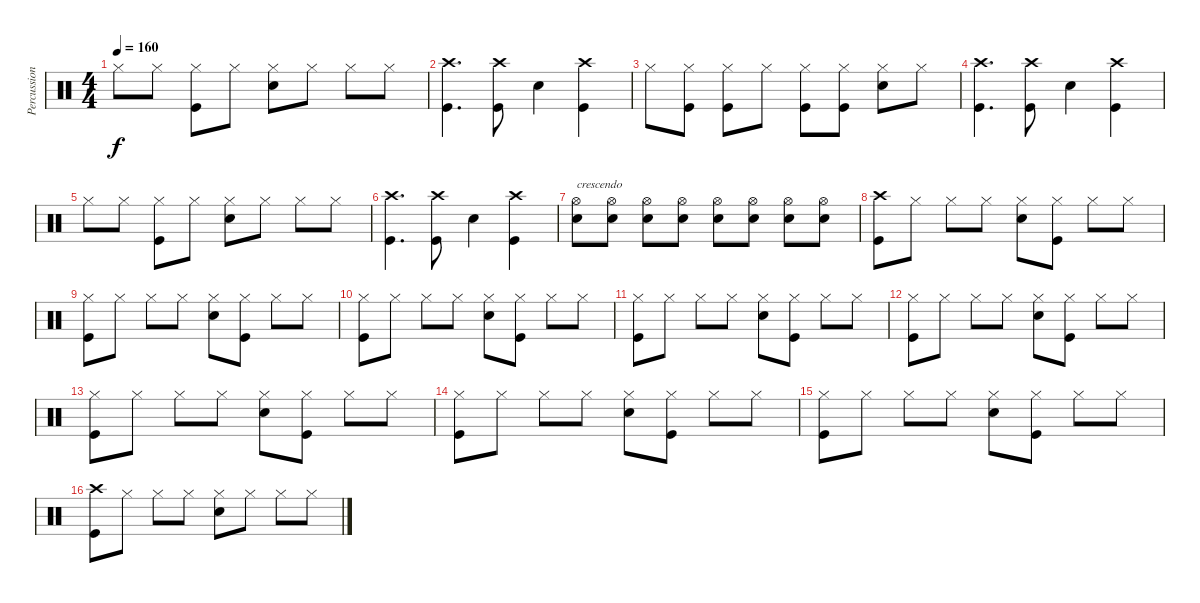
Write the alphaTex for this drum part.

\track ("Percussion" "Percussion") {instrument percussion}
\staff {score}
\articulation defaults
\ts (4 4)
\tempo 160
\clef neutral
\ks c "Hi-Hat (closed)".8{dy f} "Hi-Hat (closed)".8
("Hi-Hat (closed)" "Kick (hit)").8 "Hi-Hat (closed)".8 ("Hi-Hat (closed)" "Snare (hit) 2").8 "Hi-Hat (closed)".8 "Hi-Hat (closed)".8 "Hi-Hat (closed)".8 |
("Crash high (hit)" "Kick (hit)").4{d} ("Crash high (hit)" "Kick (hit)").8 "Snare (hit) 2".4 ("Crash high (hit)" "Kick (hit)").4 |
"Hi-Hat (closed)".8 ("Hi-Hat (closed)" "Kick (hit)").8 ("Hi-Hat (closed)" "Kick (hit)").8 "Hi-Hat (closed)".8 ("Hi-Hat (closed)" "Kick (hit)").8 ("Hi-Hat (closed)" "Kick (hit)").8 ("Hi-Hat (closed)" "Snare (hit) 2").8 "Hi-Hat (closed)".8 |
("Crash high (hit)" "Kick (hit)").4{d} ("Crash high (hit)" "Kick (hit)").8 "Snare (hit) 2".4 ("Crash high (hit)" "Kick (hit)").4 |
"Hi-Hat (closed)".8 "Hi-Hat (closed)".8 ("Hi-Hat (closed)" "Kick (hit)").8 "Hi-Hat (closed)".8 ("Hi-Hat (closed)" "Snare (hit) 2").8 "Hi-Hat (closed)".8 "Hi-Hat (closed)".8 "Hi-Hat (closed)".8 |
("Crash high (hit)" "Kick (hit)").4{d} ("Crash high (hit)" "Kick (hit)").8 "Snare (hit) 2".4 ("Crash high (hit)" "Kick (hit)").4 |
("Hi-Hat (open)" "Snare (hit) 2").8{txt "crescendo"} ("Hi-Hat (open)" "Snare (hit) 2").8 ("Hi-Hat (open)" "Snare (hit) 2").8 ("Hi-Hat (open)" "Snare (hit) 2").8 ("Hi-Hat (open)" "Snare (hit) 2").8 ("Hi-Hat (open)" "Snare (hit) 2").8 ("Hi-Hat (open)" "Snare (hit) 2").8 ("Hi-Hat (open)" "Snare (hit) 2").8 |
("Crash high (hit)" "Kick (hit)").8 "Hi-Hat (closed)".8 "Hi-Hat (closed)".8 "Hi-Hat (closed)".8 ("Hi-Hat (closed)" "Snare (hit) 2").8 ("Hi-Hat (closed)" "Kick (hit)").8 "Hi-Hat (closed)".8 "Hi-Hat (closed)".8 |
("Hi-Hat (closed)" "Kick (hit)").8 "Hi-Hat (closed)".8 "Hi-Hat (closed)".8 "Hi-Hat (closed)".8 ("Hi-Hat (closed)" "Snare (hit) 2").8 ("Hi-Hat (closed)" "Kick (hit)").8 "Hi-Hat (closed)".8 "Hi-Hat (closed)".8 |
("Hi-Hat (closed)" "Kick (hit)").8 "Hi-Hat (closed)".8 "Hi-Hat (closed)".8 "Hi-Hat (closed)".8 ("Hi-Hat (closed)" "Snare (hit) 2").8 ("Hi-Hat (closed)" "Kick (hit)").8 "Hi-Hat (closed)".8 "Hi-Hat (closed)".8 |
("Hi-Hat (closed)" "Kick (hit)").8 "Hi-Hat (closed)".8 "Hi-Hat (closed)".8 "Hi-Hat (closed)".8 ("Hi-Hat (closed)" "Snare (hit) 2").8 ("Hi-Hat (closed)" "Kick (hit)").8 "Hi-Hat (closed)".8 "Hi-Hat (closed)".8 |
("Hi-Hat (closed)" "Kick (hit)").8 "Hi-Hat (closed)".8 "Hi-Hat (closed)".8 "Hi-Hat (closed)".8 ("Hi-Hat (closed)" "Snare (hit) 2").8 ("Hi-Hat (closed)" "Kick (hit)").8 "Hi-Hat (closed)".8 "Hi-Hat (closed)".8 |
("Hi-Hat (closed)" "Kick (hit)").8 "Hi-Hat (closed)".8 "Hi-Hat (closed)".8 "Hi-Hat (closed)".8 ("Hi-Hat (closed)" "Snare (hit) 2").8 ("Hi-Hat (closed)" "Kick (hit)").8 "Hi-Hat (closed)".8 "Hi-Hat (closed)".8 |
("Hi-Hat (closed)" "Kick (hit)").8 "Hi-Hat (closed)".8 "Hi-Hat (closed)".8 "Hi-Hat (closed)".8 ("Hi-Hat (closed)" "Snare (hit) 2").8 ("Hi-Hat (closed)" "Kick (hit)").8 "Hi-Hat (closed)".8 "Hi-Hat (closed)".8 |
("Hi-Hat (closed)" "Kick (hit)").8 "Hi-Hat (closed)".8 "Hi-Hat (closed)".8 "Hi-Hat (closed)".8 ("Hi-Hat (closed)" "Snare (hit) 2").8 ("Hi-Hat (closed)" "Kick (hit)").8 "Hi-Hat (closed)".8 "Hi-Hat (closed)".8 |
("Crash high (hit)" "Kick (hit)").8 "Hi-Hat (closed)".8 "Hi-Hat (closed)".8 "Hi-Hat (closed)".8 ("Hi-Hat (closed)" "Snare (hit) 2").8 "Hi-Hat (closed)".8 "Hi-Hat (closed)".8 "Hi-Hat (closed)".8
